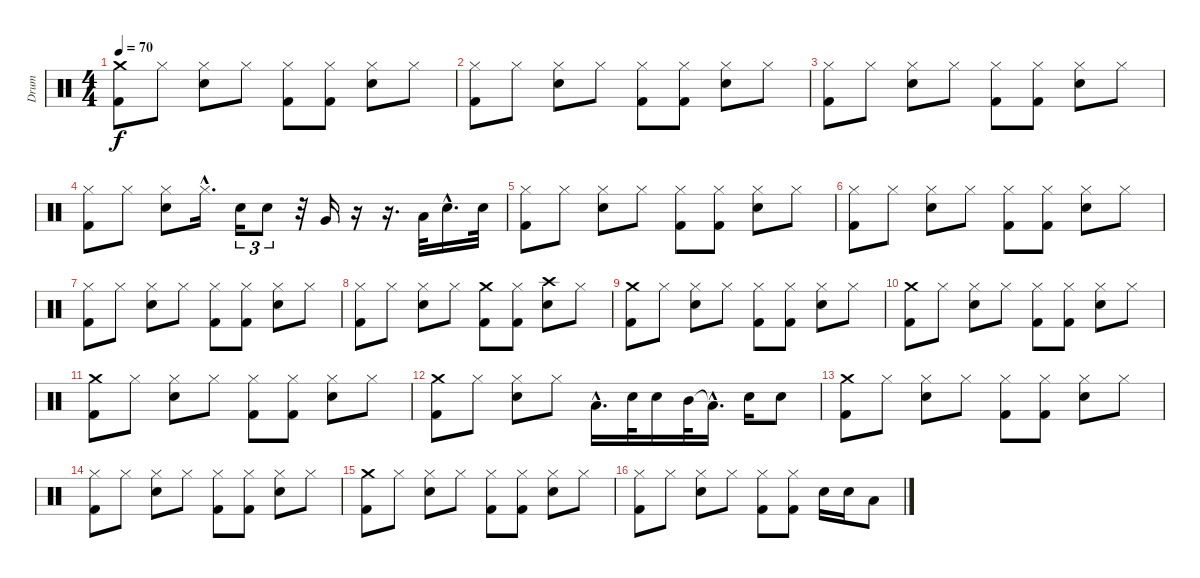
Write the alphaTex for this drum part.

\track ("Drum" "Drum") {instrument percussion}
\staff {score}
\articulation defaults
\ts (4 4)
\tempo 70
\clef neutral
\ks c
("Crash medium (hit)" "Kick (hit) 2").8{dy f} "Hi-Hat (closed)".8 ("Hi-Hat (closed)" "Snare (hit) 2").8 "Hi-Hat (closed)".8 ("Hi-Hat (closed)" "Kick (hit) 2").8 ("Hi-Hat (closed)" "Kick (hit) 2").8 ("Hi-Hat (closed)" "Snare (hit) 2").8 "Hi-Hat (closed)".8 |
("Hi-Hat (closed)" "Kick (hit) 2").8 "Hi-Hat (closed)".8 ("Hi-Hat (closed)" "Snare (hit) 2").8 "Hi-Hat (closed)".8 ("Hi-Hat (closed)" "Kick (hit) 2").8 ("Hi-Hat (closed)" "Kick (hit) 2").8 ("Hi-Hat (closed)" "Snare (hit) 2").8 "Hi-Hat (closed)".8 |
("Hi-Hat (closed)" "Kick (hit) 2").8 "Hi-Hat (closed)".8 ("Hi-Hat (closed)" "Snare (hit) 2").8 "Hi-Hat (closed)".8 ("Hi-Hat (closed)" "Kick (hit) 2").8 ("Hi-Hat (closed)" "Kick (hit) 2").8 ("Hi-Hat (closed)" "Snare (hit) 2").8 "Hi-Hat (closed)".8 |
("Hi-Hat (closed)" "Kick (hit) 2").8 "Hi-Hat (closed)".8 ("Hi-Hat (closed)" "Snare (hit) 2").8 "Hi-Hat (closed)"{hac}.16{d} "Snare (hit) 2".16{tu (3 2)} "Snare (hit) 2".8{tu (3 2)} r.32 "Very Low Tom (hit)".16 r.16 r.16{d} "Low Floor Tom (hit)".32 "Snare (hit) 2"{hac}.16{d} "Snare (hit) 2".32 |
("Hi-Hat (closed)" "Kick (hit) 2").8 "Hi-Hat (closed)".8 ("Hi-Hat (closed)" "Snare (hit) 2").8 "Hi-Hat (closed)".8 ("Hi-Hat (closed)" "Kick (hit) 2").8 ("Hi-Hat (closed)" "Kick (hit) 2").8 ("Hi-Hat (closed)" "Snare (hit) 2").8 "Hi-Hat (closed)".8 |
("Hi-Hat (closed)" "Kick (hit) 2").8 "Hi-Hat (closed)".8 ("Hi-Hat (closed)" "Snare (hit) 2").8 "Hi-Hat (closed)".8 ("Hi-Hat (closed)" "Kick (hit) 2").8 ("Hi-Hat (closed)" "Kick (hit) 2").8 ("Hi-Hat (closed)" "Snare (hit) 2").8 "Hi-Hat (closed)".8 |
("Hi-Hat (closed)" "Kick (hit) 2").8 "Hi-Hat (closed)".8 ("Hi-Hat (closed)" "Snare (hit) 2").8 "Hi-Hat (closed)".8 ("Hi-Hat (closed)" "Kick (hit) 2").8 ("Hi-Hat (closed)" "Kick (hit) 2").8 ("Hi-Hat (closed)" "Snare (hit) 2").8 "Hi-Hat (closed)".8 |
("Hi-Hat (closed)" "Kick (hit) 2").8 "Hi-Hat (closed)".8 ("Hi-Hat (closed)" "Snare (hit) 2").8 "Hi-Hat (closed)".8 ("Crash medium (hit)" "Kick (hit) 2").8 ("Hi-Hat (closed)" "Kick (hit) 2").8 ("Crash high (hit)" "Snare (hit) 2").8 "Hi-Hat (closed)".8 |
("Crash medium (hit)" "Kick (hit) 2").8 "Hi-Hat (closed)".8 ("Hi-Hat (closed)" "Snare (hit) 2").8 "Hi-Hat (closed)".8 ("Hi-Hat (closed)" "Kick (hit) 2").8 ("Hi-Hat (closed)" "Kick (hit) 2").8 ("Hi-Hat (closed)" "Snare (hit) 2").8 "Hi-Hat (closed)".8 |
("Crash medium (hit)" "Kick (hit) 2").8 "Hi-Hat (closed)".8 ("Hi-Hat (closed)" "Snare (hit) 2").8 "Hi-Hat (closed)".8 ("Hi-Hat (closed)" "Kick (hit) 2").8 ("Hi-Hat (closed)" "Kick (hit) 2").8 ("Hi-Hat (closed)" "Snare (hit) 2").8 "Hi-Hat (closed)".8 |
("Crash medium (hit)" "Kick (hit) 2").8 "Hi-Hat (closed)".8 ("Hi-Hat (closed)" "Snare (hit) 2").8 "Hi-Hat (closed)".8 ("Hi-Hat (closed)" "Kick (hit) 2").8 ("Hi-Hat (closed)" "Kick (hit) 2").8 ("Hi-Hat (closed)" "Snare (hit) 2").8 "Hi-Hat (closed)".8 |
("Crash medium (hit)" "Kick (hit) 2").8 "Hi-Hat (closed)".8 ("Hi-Hat (closed)" "Snare (hit) 2").8 "Hi-Hat (closed)".8 "Low Tom (hit)"{hac}.16{d} "Snare (hit) 2".32 "Snare (hit) 2".16 "Mid Tom (hit)".32 "Low Tom (hit)"{hac t}.16{d} "Snare (hit) 2".16 "Snare (hit) 2".8 |
("Crash medium (hit)" "Kick (hit) 2").8 "Hi-Hat (closed)".8 ("Hi-Hat (closed)" "Snare (hit) 2").8 "Hi-Hat (closed)".8 ("Hi-Hat (closed)" "Kick (hit) 2").8 ("Hi-Hat (closed)" "Kick (hit) 2").8 ("Hi-Hat (closed)" "Snare (hit) 2").8 "Hi-Hat (closed)".8 |
("Hi-Hat (closed)" "Kick (hit) 2").8 "Hi-Hat (closed)".8 ("Hi-Hat (closed)" "Snare (hit) 2").8 "Hi-Hat (closed)".8 ("Hi-Hat (closed)" "Kick (hit) 2").8 ("Hi-Hat (closed)" "Kick (hit) 2").8 ("Hi-Hat (closed)" "Snare (hit) 2").8 "Hi-Hat (closed)".8 |
("Crash medium (hit)" "Kick (hit) 2").8 "Hi-Hat (closed)".8 ("Hi-Hat (closed)" "Snare (hit) 2").8 "Hi-Hat (closed)".8 ("Hi-Hat (closed)" "Kick (hit) 2").8 ("Hi-Hat (closed)" "Kick (hit) 2").8 ("Hi-Hat (closed)" "Snare (hit) 2").8 "Hi-Hat (closed)".8 |
("Hi-Hat (closed)" "Kick (hit) 2").8 "Hi-Hat (closed)".8 ("Hi-Hat (closed)" "Snare (hit) 2").8 "Hi-Hat (closed)".8 ("Hi-Hat (closed)" "Kick (hit) 2").8 ("Hi-Hat (closed)" "Kick (hit) 2").8 "Snare (hit) 2".16 "Snare (hit) 2".16 "Low Tom (hit)".8
